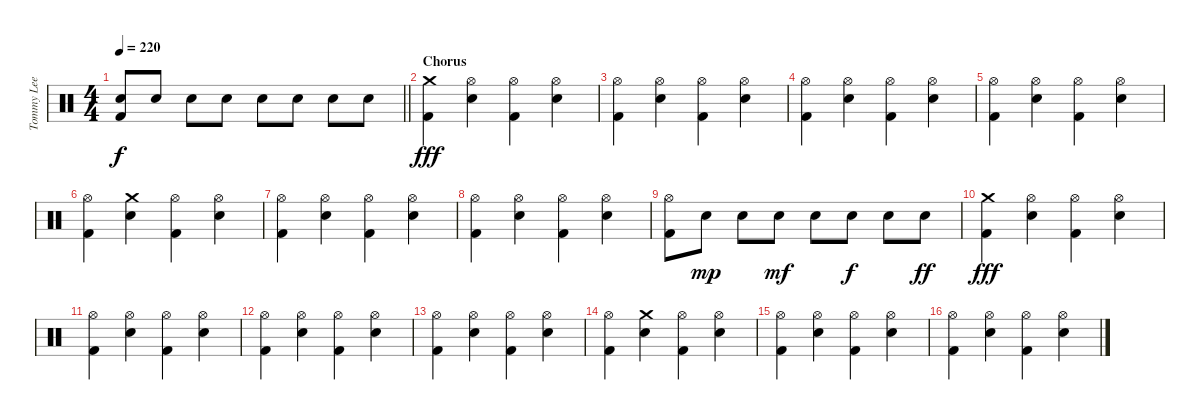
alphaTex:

\track ("Tommy Lee - Drums" "Tommy Lee ") {instrument percussion}
\staff {score}
\articulation defaults
\ts (4 4)
\tempo 220
\clef neutral
\barLineRight lightlight
\ks c
("Electric Snare (hit)" "Kick (hit) 2").8{dy f} "Electric Snare (hit)".8 "Electric Snare (hit)".8 "Electric Snare (hit)".8 "Electric Snare (hit)".8 "Electric Snare (hit)".8 "Electric Snare (hit)".8 "Electric Snare (hit)".8 |
\section ("" "Chorus")
("Crash medium (hit)" "Kick (hit) 2").4{dy fff} ("Hi-Hat (open)" "Electric Snare (hit)").4 ("Hi-Hat (open)" "Kick (hit) 2").4 ("Hi-Hat (open)" "Electric Snare (hit)").4 |
("Hi-Hat (open)" "Kick (hit) 2").4 ("Hi-Hat (open)" "Electric Snare (hit)").4 ("Hi-Hat (open)" "Kick (hit) 2").4 ("Hi-Hat (open)" "Electric Snare (hit)").4 |
("Hi-Hat (open)" "Kick (hit) 2").4 ("Hi-Hat (open)" "Electric Snare (hit)").4 ("Hi-Hat (open)" "Kick (hit) 2").4 ("Hi-Hat (open)" "Electric Snare (hit)").4 |
("Hi-Hat (open)" "Kick (hit) 2").4 ("Hi-Hat (open)" "Electric Snare (hit)").4 ("Hi-Hat (open)" "Kick (hit) 2").4 ("Hi-Hat (open)" "Electric Snare (hit)").4 |
("Hi-Hat (open)" "Kick (hit) 2").4 ("Crash medium (hit)" "Electric Snare (hit)").4 ("Hi-Hat (open)" "Kick (hit) 2").4 ("Hi-Hat (open)" "Electric Snare (hit)").4 |
("Hi-Hat (open)" "Kick (hit) 2").4 ("Hi-Hat (open)" "Electric Snare (hit)").4 ("Hi-Hat (open)" "Kick (hit) 2").4 ("Hi-Hat (open)" "Electric Snare (hit)").4 |
("Hi-Hat (open)" "Kick (hit) 2").4 ("Hi-Hat (open)" "Electric Snare (hit)").4 ("Hi-Hat (open)" "Kick (hit) 2").4 ("Hi-Hat (open)" "Electric Snare (hit)").4 |
("Hi-Hat (open)" "Kick (hit) 2").8 "Electric Snare (hit)".8{dy mp} "Electric Snare (hit)".8 "Electric Snare (hit)".8{dy mf} "Electric Snare (hit)".8 "Electric Snare (hit)".8{dy f} "Electric Snare (hit)".8 "Electric Snare (hit)".8{dy ff} |
("Crash medium (hit)" "Kick (hit) 2").4{dy fff} ("Hi-Hat (open)" "Electric Snare (hit)").4 ("Hi-Hat (open)" "Kick (hit) 2").4 ("Hi-Hat (open)" "Electric Snare (hit)").4 |
("Hi-Hat (open)" "Kick (hit) 2").4 ("Hi-Hat (open)" "Electric Snare (hit)").4 ("Hi-Hat (open)" "Kick (hit) 2").4 ("Hi-Hat (open)" "Electric Snare (hit)").4 |
("Hi-Hat (open)" "Kick (hit) 2").4 ("Hi-Hat (open)" "Electric Snare (hit)").4 ("Hi-Hat (open)" "Kick (hit) 2").4 ("Hi-Hat (open)" "Electric Snare (hit)").4 |
("Hi-Hat (open)" "Kick (hit) 2").4 ("Hi-Hat (open)" "Electric Snare (hit)").4 ("Hi-Hat (open)" "Kick (hit) 2").4 ("Hi-Hat (open)" "Electric Snare (hit)").4 |
("Hi-Hat (open)" "Kick (hit) 2").4 ("Crash medium (hit)" "Electric Snare (hit)").4 ("Hi-Hat (open)" "Kick (hit) 2").4 ("Hi-Hat (open)" "Electric Snare (hit)").4 |
("Hi-Hat (open)" "Kick (hit) 2").4 ("Hi-Hat (open)" "Electric Snare (hit)").4 ("Hi-Hat (open)" "Kick (hit) 2").4 ("Hi-Hat (open)" "Electric Snare (hit)").4 |
("Hi-Hat (open)" "Kick (hit) 2").4 ("Hi-Hat (open)" "Electric Snare (hit)").4 ("Hi-Hat (open)" "Kick (hit) 2").4 ("Hi-Hat (open)" "Electric Snare (hit)").4
